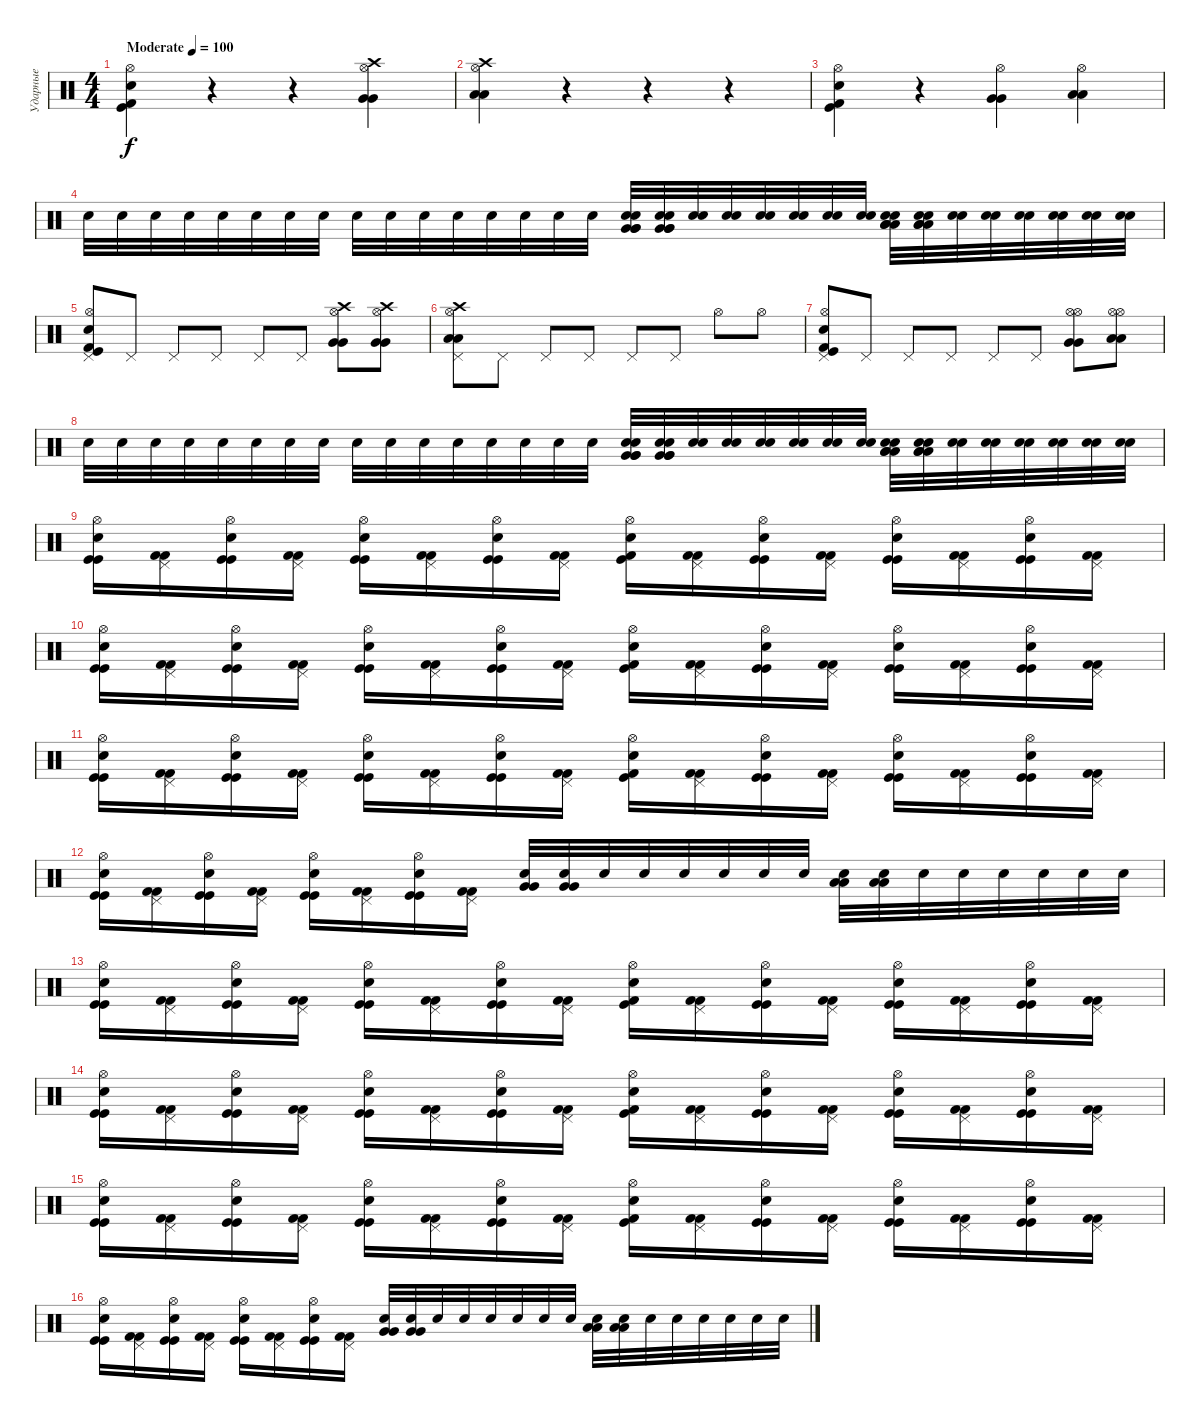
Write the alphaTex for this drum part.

\track ("Ударные" "Ударные") {instrument percussion}
\staff {score}
\articulation defaults
\ts (4 4)
\tempo (100 "Moderate")
\clef neutral
\ks c
("Kick (hit)" "Kick (hit) 2" "Snare (hit) 2" "Hi-Hat (open)").4{dy f} r.4 r.4 ("Crash high (hit)" "Very Low Tom (hit)" "Very Low Tom (hit)" "Hi-Hat (open)").4 |
("Hi-Hat (open)" "Low Floor Tom (hit)" "Low Floor Tom (hit)" "Crash high (hit)").4 r.4 r.4 r.4 |
("Kick (hit)" "Kick (hit) 2" "Snare (hit) 2" "Hi-Hat (open)").4 r.4 ("Very Low Tom (hit)" "Very Low Tom (hit)" "Hi-Hat (open)").4 ("Low Floor Tom (hit)" "Low Floor Tom (hit)" "Hi-Hat (open)").4 |
"Electric Snare (hit)".32 "Electric Snare (hit)".32 "Electric Snare (hit)".32 "Electric Snare (hit)".32 "Electric Snare (hit)".32 "Electric Snare (hit)".32 "Electric Snare (hit)".32 "Electric Snare (hit)".32 "Electric Snare (hit)".32 "Electric Snare (hit)".32 "Electric Snare (hit)".32 "Electric Snare (hit)".32 "Electric Snare (hit)".32 "Electric Snare (hit)".32 "Electric Snare (hit)".32 "Electric Snare (hit)".32 ("Electric Snare (hit)" "Electric Snare (hit)" "Very Low Tom (hit)" "Very Low Tom (hit)" "Very Low Tom (hit)").32 ("Electric Snare (hit)" "Electric Snare (hit)" "Very Low Tom (hit)" "Very Low Tom (hit)" "Very Low Tom (hit)").32 ("Electric Snare (hit)" "Electric Snare (hit)").32 ("Electric Snare (hit)" "Electric Snare (hit)").32 ("Electric Snare (hit)" "Electric Snare (hit)").32 ("Electric Snare (hit)" "Electric Snare (hit)").32 ("Electric Snare (hit)" "Electric Snare (hit)").32 ("Electric Snare (hit)" "Electric Snare (hit)").32 ("Electric Snare (hit)" "Electric Snare (hit)" "Low Floor Tom (hit)" "Low Floor Tom (hit)" "Low Floor Tom (hit)").32 ("Electric Snare (hit)" "Electric Snare (hit)" "Low Floor Tom (hit)" "Low Floor Tom (hit)" "Low Floor Tom (hit)").32 ("Electric Snare (hit)" "Electric Snare (hit)").32 ("Electric Snare (hit)" "Electric Snare (hit)").32 ("Electric Snare (hit)" "Electric Snare (hit)").32 ("Electric Snare (hit)" "Electric Snare (hit)").32 ("Electric Snare (hit)" "Electric Snare (hit)").32 ("Electric Snare (hit)" "Electric Snare (hit)").32 |
("Kick (hit)" "Kick (hit) 2" "Snare (hit) 2" "Hi-Hat (open)" "Pedal Hi-Hat (hit)").8 "Pedal Hi-Hat (hit)".8 "Pedal Hi-Hat (hit)".8 "Pedal Hi-Hat (hit)".8 "Pedal Hi-Hat (hit)".8 "Pedal Hi-Hat (hit)".8 ("Crash high (hit)" "Very Low Tom (hit)" "Very Low Tom (hit)" "Hi-Hat (open)").8 ("Crash high (hit)" "Very Low Tom (hit)" "Very Low Tom (hit)" "Hi-Hat (open)").8 |
("Hi-Hat (open)" "Low Floor Tom (hit)" "Low Floor Tom (hit)" "Crash high (hit)" "Pedal Hi-Hat (hit)").8 "Pedal Hi-Hat (hit)".8 "Pedal Hi-Hat (hit)".8 "Pedal Hi-Hat (hit)".8 "Pedal Hi-Hat (hit)".8 "Pedal Hi-Hat (hit)".8 "Hi-Hat (open)".8 "Hi-Hat (open)".8 |
("Kick (hit)" "Kick (hit) 2" "Snare (hit) 2" "Hi-Hat (open)" "Pedal Hi-Hat (hit)").8 "Pedal Hi-Hat (hit)".8 "Pedal Hi-Hat (hit)".8 "Pedal Hi-Hat (hit)".8 "Pedal Hi-Hat (hit)".8 "Pedal Hi-Hat (hit)".8 ("Very Low Tom (hit)" "Very Low Tom (hit)" "Hi-Hat (open)" "Hi-Hat (open)").8 ("Low Floor Tom (hit)" "Low Floor Tom (hit)" "Hi-Hat (open)" "Hi-Hat (open)").8 |
"Electric Snare (hit)".32 "Electric Snare (hit)".32 "Electric Snare (hit)".32 "Electric Snare (hit)".32 "Electric Snare (hit)".32 "Electric Snare (hit)".32 "Electric Snare (hit)".32 "Electric Snare (hit)".32 "Electric Snare (hit)".32 "Electric Snare (hit)".32 "Electric Snare (hit)".32 "Electric Snare (hit)".32 "Electric Snare (hit)".32 "Electric Snare (hit)".32 "Electric Snare (hit)".32 "Electric Snare (hit)".32 ("Electric Snare (hit)" "Electric Snare (hit)" "Very Low Tom (hit)" "Very Low Tom (hit)" "Very Low Tom (hit)").32 ("Electric Snare (hit)" "Electric Snare (hit)" "Very Low Tom (hit)" "Very Low Tom (hit)" "Very Low Tom (hit)").32 ("Electric Snare (hit)" "Electric Snare (hit)").32 ("Electric Snare (hit)" "Electric Snare (hit)").32 ("Electric Snare (hit)" "Electric Snare (hit)").32 ("Electric Snare (hit)" "Electric Snare (hit)").32 ("Electric Snare (hit)" "Electric Snare (hit)").32 ("Electric Snare (hit)" "Electric Snare (hit)").32 ("Electric Snare (hit)" "Electric Snare (hit)" "Low Floor Tom (hit)" "Low Floor Tom (hit)" "Low Floor Tom (hit)").32 ("Electric Snare (hit)" "Electric Snare (hit)" "Low Floor Tom (hit)" "Low Floor Tom (hit)" "Low Floor Tom (hit)").32 ("Electric Snare (hit)" "Electric Snare (hit)").32 ("Electric Snare (hit)" "Electric Snare (hit)").32 ("Electric Snare (hit)" "Electric Snare (hit)").32 ("Electric Snare (hit)" "Electric Snare (hit)").32 ("Electric Snare (hit)" "Electric Snare (hit)").32 ("Electric Snare (hit)" "Electric Snare (hit)").32 |
("Hi-Hat (open)" "Kick (hit)" "Kick (hit)" "Snare (hit) 2").16 ("Pedal Hi-Hat (hit)" "Kick (hit) 2" "Kick (hit) 2").16 ("Hi-Hat (open)" "Kick (hit)" "Kick (hit)" "Snare (hit) 2").16 ("Pedal Hi-Hat (hit)" "Kick (hit) 2" "Kick (hit) 2").16 ("Hi-Hat (open)" "Kick (hit)" "Kick (hit)" "Snare (hit) 2").16 ("Pedal Hi-Hat (hit)" "Kick (hit) 2" "Kick (hit) 2").16 ("Hi-Hat (open)" "Kick (hit)" "Kick (hit)" "Snare (hit) 2").16 ("Pedal Hi-Hat (hit)" "Kick (hit) 2" "Kick (hit) 2").16 ("Hi-Hat (open)" "Kick (hit)" "Kick (hit) 2" "Snare (hit) 2").16 ("Pedal Hi-Hat (hit)" "Kick (hit) 2" "Kick (hit) 2").16 ("Hi-Hat (open)" "Kick (hit)" "Kick (hit)" "Snare (hit) 2").16 ("Pedal Hi-Hat (hit)" "Kick (hit) 2" "Kick (hit) 2").16 ("Hi-Hat (open)" "Kick (hit)" "Kick (hit)" "Snare (hit) 2").16 ("Pedal Hi-Hat (hit)" "Kick (hit) 2" "Kick (hit) 2").16 ("Hi-Hat (open)" "Kick (hit)" "Kick (hit)" "Snare (hit) 2").16 ("Pedal Hi-Hat (hit)" "Kick (hit) 2" "Kick (hit) 2").16 |
("Hi-Hat (open)" "Kick (hit)" "Kick (hit)" "Snare (hit) 2").16 ("Pedal Hi-Hat (hit)" "Kick (hit) 2" "Kick (hit) 2").16 ("Hi-Hat (open)" "Kick (hit)" "Kick (hit)" "Snare (hit) 2").16 ("Pedal Hi-Hat (hit)" "Kick (hit) 2" "Kick (hit) 2").16 ("Hi-Hat (open)" "Kick (hit)" "Kick (hit)" "Snare (hit) 2").16 ("Pedal Hi-Hat (hit)" "Kick (hit) 2" "Kick (hit) 2").16 ("Hi-Hat (open)" "Kick (hit)" "Kick (hit)" "Snare (hit) 2").16 ("Pedal Hi-Hat (hit)" "Kick (hit) 2" "Kick (hit) 2").16 ("Hi-Hat (open)" "Kick (hit)" "Kick (hit) 2" "Snare (hit) 2").16 ("Pedal Hi-Hat (hit)" "Kick (hit) 2" "Kick (hit) 2").16 ("Hi-Hat (open)" "Kick (hit)" "Kick (hit)" "Snare (hit) 2").16 ("Pedal Hi-Hat (hit)" "Kick (hit) 2" "Kick (hit) 2").16 ("Hi-Hat (open)" "Kick (hit)" "Kick (hit)" "Snare (hit) 2").16 ("Pedal Hi-Hat (hit)" "Kick (hit) 2" "Kick (hit) 2").16 ("Hi-Hat (open)" "Kick (hit)" "Kick (hit)" "Snare (hit) 2").16 ("Pedal Hi-Hat (hit)" "Kick (hit) 2" "Kick (hit) 2").16 |
("Hi-Hat (open)" "Kick (hit)" "Kick (hit)" "Snare (hit) 2").16 ("Pedal Hi-Hat (hit)" "Kick (hit) 2" "Kick (hit) 2").16 ("Hi-Hat (open)" "Kick (hit)" "Kick (hit)" "Snare (hit) 2").16 ("Pedal Hi-Hat (hit)" "Kick (hit) 2" "Kick (hit) 2").16 ("Hi-Hat (open)" "Kick (hit)" "Kick (hit)" "Snare (hit) 2").16 ("Pedal Hi-Hat (hit)" "Kick (hit) 2" "Kick (hit) 2").16 ("Hi-Hat (open)" "Kick (hit)" "Kick (hit)" "Snare (hit) 2").16 ("Pedal Hi-Hat (hit)" "Kick (hit) 2" "Kick (hit) 2").16 ("Hi-Hat (open)" "Kick (hit)" "Kick (hit) 2" "Snare (hit) 2").16 ("Pedal Hi-Hat (hit)" "Kick (hit) 2" "Kick (hit) 2").16 ("Hi-Hat (open)" "Kick (hit)" "Kick (hit)" "Snare (hit) 2").16 ("Pedal Hi-Hat (hit)" "Kick (hit) 2" "Kick (hit) 2").16 ("Hi-Hat (open)" "Kick (hit)" "Kick (hit)" "Snare (hit) 2").16 ("Pedal Hi-Hat (hit)" "Kick (hit) 2" "Kick (hit) 2").16 ("Hi-Hat (open)" "Kick (hit)" "Kick (hit)" "Snare (hit) 2").16 ("Pedal Hi-Hat (hit)" "Kick (hit) 2" "Kick (hit) 2").16 |
("Hi-Hat (open)" "Kick (hit)" "Kick (hit)" "Snare (hit) 2").16 ("Pedal Hi-Hat (hit)" "Kick (hit) 2" "Kick (hit) 2").16 ("Hi-Hat (open)" "Kick (hit)" "Kick (hit)" "Snare (hit) 2").16 ("Pedal Hi-Hat (hit)" "Kick (hit) 2" "Kick (hit) 2").16 ("Hi-Hat (open)" "Kick (hit)" "Kick (hit)" "Snare (hit) 2").16 ("Pedal Hi-Hat (hit)" "Kick (hit) 2" "Kick (hit) 2").16 ("Hi-Hat (open)" "Kick (hit)" "Kick (hit)" "Snare (hit) 2").16 ("Pedal Hi-Hat (hit)" "Kick (hit) 2" "Kick (hit) 2").16 ("Electric Snare (hit)" "Very Low Tom (hit)" "Very Low Tom (hit)").32 ("Electric Snare (hit)" "Very Low Tom (hit)" "Very Low Tom (hit)").32 "Electric Snare (hit)".32 "Electric Snare (hit)".32 "Electric Snare (hit)".32 "Electric Snare (hit)".32 "Electric Snare (hit)".32 "Electric Snare (hit)".32 ("Electric Snare (hit)" "Low Floor Tom (hit)" "Low Floor Tom (hit)").32 ("Electric Snare (hit)" "Low Floor Tom (hit)" "Low Floor Tom (hit)").32 "Electric Snare (hit)".32 "Electric Snare (hit)".32 "Electric Snare (hit)".32 "Electric Snare (hit)".32 "Electric Snare (hit)".32 "Electric Snare (hit)".32 |
("Hi-Hat (open)" "Kick (hit)" "Kick (hit)" "Snare (hit) 2").16 ("Pedal Hi-Hat (hit)" "Kick (hit) 2" "Kick (hit) 2").16 ("Hi-Hat (open)" "Kick (hit)" "Kick (hit)" "Snare (hit) 2").16 ("Pedal Hi-Hat (hit)" "Kick (hit) 2" "Kick (hit) 2").16 ("Hi-Hat (open)" "Kick (hit)" "Kick (hit)" "Snare (hit) 2").16 ("Pedal Hi-Hat (hit)" "Kick (hit) 2" "Kick (hit) 2").16 ("Hi-Hat (open)" "Kick (hit)" "Kick (hit)" "Snare (hit) 2").16 ("Pedal Hi-Hat (hit)" "Kick (hit) 2" "Kick (hit) 2").16 ("Hi-Hat (open)" "Kick (hit)" "Kick (hit) 2" "Snare (hit) 2").16 ("Pedal Hi-Hat (hit)" "Kick (hit) 2" "Kick (hit) 2").16 ("Hi-Hat (open)" "Kick (hit)" "Kick (hit)" "Snare (hit) 2").16 ("Pedal Hi-Hat (hit)" "Kick (hit) 2" "Kick (hit) 2").16 ("Hi-Hat (open)" "Kick (hit)" "Kick (hit)" "Snare (hit) 2").16 ("Pedal Hi-Hat (hit)" "Kick (hit) 2" "Kick (hit) 2").16 ("Hi-Hat (open)" "Kick (hit)" "Kick (hit)" "Snare (hit) 2").16 ("Pedal Hi-Hat (hit)" "Kick (hit) 2" "Kick (hit) 2").16 |
("Hi-Hat (open)" "Kick (hit)" "Kick (hit)" "Snare (hit) 2").16 ("Pedal Hi-Hat (hit)" "Kick (hit) 2" "Kick (hit) 2").16 ("Hi-Hat (open)" "Kick (hit)" "Kick (hit)" "Snare (hit) 2").16 ("Pedal Hi-Hat (hit)" "Kick (hit) 2" "Kick (hit) 2").16 ("Hi-Hat (open)" "Kick (hit)" "Kick (hit)" "Snare (hit) 2").16 ("Pedal Hi-Hat (hit)" "Kick (hit) 2" "Kick (hit) 2").16 ("Hi-Hat (open)" "Kick (hit)" "Kick (hit)" "Snare (hit) 2").16 ("Pedal Hi-Hat (hit)" "Kick (hit) 2" "Kick (hit) 2").16 ("Hi-Hat (open)" "Kick (hit)" "Kick (hit) 2" "Snare (hit) 2").16 ("Pedal Hi-Hat (hit)" "Kick (hit) 2" "Kick (hit) 2").16 ("Hi-Hat (open)" "Kick (hit)" "Kick (hit)" "Snare (hit) 2").16 ("Pedal Hi-Hat (hit)" "Kick (hit) 2" "Kick (hit) 2").16 ("Hi-Hat (open)" "Kick (hit)" "Kick (hit)" "Snare (hit) 2").16 ("Pedal Hi-Hat (hit)" "Kick (hit) 2" "Kick (hit) 2").16 ("Hi-Hat (open)" "Kick (hit)" "Kick (hit)" "Snare (hit) 2").16 ("Pedal Hi-Hat (hit)" "Kick (hit) 2" "Kick (hit) 2").16 |
("Hi-Hat (open)" "Kick (hit)" "Kick (hit)" "Snare (hit) 2").16 ("Pedal Hi-Hat (hit)" "Kick (hit) 2" "Kick (hit) 2").16 ("Hi-Hat (open)" "Kick (hit)" "Kick (hit)" "Snare (hit) 2").16 ("Pedal Hi-Hat (hit)" "Kick (hit) 2" "Kick (hit) 2").16 ("Hi-Hat (open)" "Kick (hit)" "Kick (hit)" "Snare (hit) 2").16 ("Pedal Hi-Hat (hit)" "Kick (hit) 2" "Kick (hit) 2").16 ("Hi-Hat (open)" "Kick (hit)" "Kick (hit)" "Snare (hit) 2").16 ("Pedal Hi-Hat (hit)" "Kick (hit) 2" "Kick (hit) 2").16 ("Hi-Hat (open)" "Kick (hit)" "Kick (hit) 2" "Snare (hit) 2").16 ("Pedal Hi-Hat (hit)" "Kick (hit) 2" "Kick (hit) 2").16 ("Hi-Hat (open)" "Kick (hit)" "Kick (hit)" "Snare (hit) 2").16 ("Pedal Hi-Hat (hit)" "Kick (hit) 2" "Kick (hit) 2").16 ("Hi-Hat (open)" "Kick (hit)" "Kick (hit)" "Snare (hit) 2").16 ("Pedal Hi-Hat (hit)" "Kick (hit) 2" "Kick (hit) 2").16 ("Hi-Hat (open)" "Kick (hit)" "Kick (hit)" "Snare (hit) 2").16 ("Pedal Hi-Hat (hit)" "Kick (hit) 2" "Kick (hit) 2").16 |
("Hi-Hat (open)" "Kick (hit)" "Kick (hit)" "Snare (hit) 2").16 ("Pedal Hi-Hat (hit)" "Kick (hit) 2" "Kick (hit) 2").16 ("Hi-Hat (open)" "Kick (hit)" "Kick (hit)" "Snare (hit) 2").16 ("Pedal Hi-Hat (hit)" "Kick (hit) 2" "Kick (hit) 2").16 ("Hi-Hat (open)" "Kick (hit)" "Kick (hit)" "Snare (hit) 2").16 ("Pedal Hi-Hat (hit)" "Kick (hit) 2" "Kick (hit) 2").16 ("Hi-Hat (open)" "Kick (hit)" "Kick (hit)" "Snare (hit) 2").16 ("Pedal Hi-Hat (hit)" "Kick (hit) 2" "Kick (hit) 2").16 ("Electric Snare (hit)" "Very Low Tom (hit)" "Very Low Tom (hit)").32 ("Electric Snare (hit)" "Very Low Tom (hit)" "Very Low Tom (hit)").32 "Electric Snare (hit)".32 "Electric Snare (hit)".32 "Electric Snare (hit)".32 "Electric Snare (hit)".32 "Electric Snare (hit)".32 "Electric Snare (hit)".32 ("Electric Snare (hit)" "Low Floor Tom (hit)" "Low Floor Tom (hit)").32 ("Electric Snare (hit)" "Low Floor Tom (hit)" "Low Floor Tom (hit)").32 "Electric Snare (hit)".32 "Electric Snare (hit)".32 "Electric Snare (hit)".32 "Electric Snare (hit)".32 "Electric Snare (hit)".32 "Electric Snare (hit)".32
